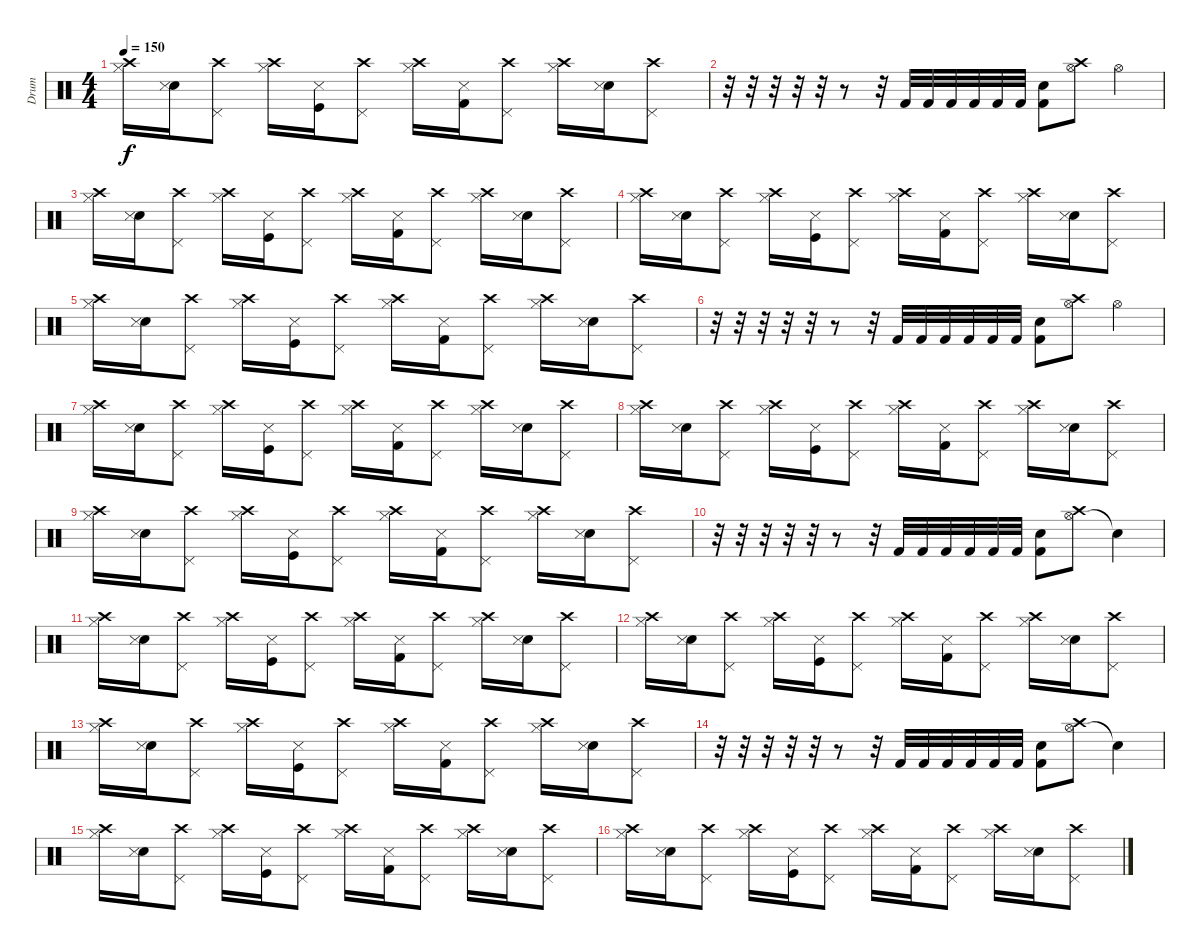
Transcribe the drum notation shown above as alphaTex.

\track ("Drum" "Drum") {instrument percussion}
\staff {score}
\articulation defaults
\ts (4 4)
\tempo 150
\clef neutral
\ks c
("Crash high (hit)" "Hi-Hat (closed)").16{dy f} ("Snare (hit) 2" "Snare (side stick) 3").16 ("Crash high (hit)" "Pedal Hi-Hat (hit)").8 ("Crash high (hit)" "Hi-Hat (closed)").16 ("Kick (hit)" "Snare (side stick) 3").16 ("Crash high (hit)" "Pedal Hi-Hat (hit)").8 ("Crash high (hit)" "Hi-Hat (closed)").16 ("Kick (hit) 2" "Snare (side stick) 3").16 ("Crash high (hit)" "Pedal Hi-Hat (hit)").8 ("Crash high (hit)" "Hi-Hat (closed)").16 ("Snare (hit) 2" "Snare (side stick) 3").16 ("Crash high (hit)" "Pedal Hi-Hat (hit)").8 |
r.32 r.32 r.32 r.32 r.32 r.8 r.32 "Kick (hit) 2".32 "Kick (hit) 2".32 "Kick (hit) 2".32 "Kick (hit) 2".32 "Kick (hit) 2".32 "Kick (hit) 2".32 ("Snare (hit) 2" "Kick (hit) 2").8 ("Hi-Hat (open)" "Crash high (hit)").8 "Hi-Hat (open)".4 |
("Crash high (hit)" "Hi-Hat (closed)").16 ("Snare (hit) 2" "Snare (side stick) 3").16 ("Crash high (hit)" "Pedal Hi-Hat (hit)").8 ("Crash high (hit)" "Hi-Hat (closed)").16 ("Kick (hit)" "Snare (side stick) 3").16 ("Crash high (hit)" "Pedal Hi-Hat (hit)").8 ("Crash high (hit)" "Hi-Hat (closed)").16 ("Kick (hit) 2" "Snare (side stick) 3").16 ("Crash high (hit)" "Pedal Hi-Hat (hit)").8 ("Crash high (hit)" "Hi-Hat (closed)").16 ("Snare (hit) 2" "Snare (side stick) 3").16 ("Crash high (hit)" "Pedal Hi-Hat (hit)").8 |
("Crash high (hit)" "Hi-Hat (closed)").16 ("Snare (hit) 2" "Snare (side stick) 3").16 ("Crash high (hit)" "Pedal Hi-Hat (hit)").8 ("Crash high (hit)" "Hi-Hat (closed)").16 ("Kick (hit)" "Snare (side stick) 3").16 ("Crash high (hit)" "Pedal Hi-Hat (hit)").8 ("Crash high (hit)" "Hi-Hat (closed)").16 ("Kick (hit) 2" "Snare (side stick) 3").16 ("Crash high (hit)" "Pedal Hi-Hat (hit)").8 ("Crash high (hit)" "Hi-Hat (closed)").16 ("Snare (hit) 2" "Snare (side stick) 3").16 ("Crash high (hit)" "Pedal Hi-Hat (hit)").8 |
("Crash high (hit)" "Hi-Hat (closed)").16 ("Snare (hit) 2" "Snare (side stick) 3").16 ("Crash high (hit)" "Pedal Hi-Hat (hit)").8 ("Crash high (hit)" "Hi-Hat (closed)").16 ("Kick (hit)" "Snare (side stick) 3").16 ("Crash high (hit)" "Pedal Hi-Hat (hit)").8 ("Crash high (hit)" "Hi-Hat (closed)").16 ("Kick (hit) 2" "Snare (side stick) 3").16 ("Crash high (hit)" "Pedal Hi-Hat (hit)").8 ("Crash high (hit)" "Hi-Hat (closed)").16 ("Snare (hit) 2" "Snare (side stick) 3").16 ("Crash high (hit)" "Pedal Hi-Hat (hit)").8 |
r.32 r.32 r.32 r.32 r.32 r.8 r.32 "Kick (hit) 2".32 "Kick (hit) 2".32 "Kick (hit) 2".32 "Kick (hit) 2".32 "Kick (hit) 2".32 "Kick (hit) 2".32 ("Snare (hit) 2" "Kick (hit) 2").8 ("Hi-Hat (open)" "Crash high (hit)").8 "Hi-Hat (open)".4 |
("Crash high (hit)" "Hi-Hat (closed)").16 ("Snare (hit) 2" "Snare (side stick) 3").16 ("Crash high (hit)" "Pedal Hi-Hat (hit)").8 ("Crash high (hit)" "Hi-Hat (closed)").16 ("Kick (hit)" "Snare (side stick) 3").16 ("Crash high (hit)" "Pedal Hi-Hat (hit)").8 ("Crash high (hit)" "Hi-Hat (closed)").16 ("Kick (hit) 2" "Snare (side stick) 3").16 ("Crash high (hit)" "Pedal Hi-Hat (hit)").8 ("Crash high (hit)" "Hi-Hat (closed)").16 ("Snare (hit) 2" "Snare (side stick) 3").16 ("Crash high (hit)" "Pedal Hi-Hat (hit)").8 |
("Crash high (hit)" "Hi-Hat (closed)").16 ("Snare (hit) 2" "Snare (side stick) 3").16 ("Crash high (hit)" "Pedal Hi-Hat (hit)").8 ("Crash high (hit)" "Hi-Hat (closed)").16 ("Kick (hit)" "Snare (side stick) 3").16 ("Crash high (hit)" "Pedal Hi-Hat (hit)").8 ("Crash high (hit)" "Hi-Hat (closed)").16 ("Kick (hit) 2" "Snare (side stick) 3").16 ("Crash high (hit)" "Pedal Hi-Hat (hit)").8 ("Crash high (hit)" "Hi-Hat (closed)").16 ("Snare (hit) 2" "Snare (side stick) 3").16 ("Crash high (hit)" "Pedal Hi-Hat (hit)").8 |
("Crash high (hit)" "Hi-Hat (closed)").16 ("Snare (hit) 2" "Snare (side stick) 3").16 ("Crash high (hit)" "Pedal Hi-Hat (hit)").8 ("Crash high (hit)" "Hi-Hat (closed)").16 ("Kick (hit)" "Snare (side stick) 3").16 ("Crash high (hit)" "Pedal Hi-Hat (hit)").8 ("Crash high (hit)" "Hi-Hat (closed)").16 ("Kick (hit) 2" "Snare (side stick) 3").16 ("Crash high (hit)" "Pedal Hi-Hat (hit)").8 ("Crash high (hit)" "Hi-Hat (closed)").16 ("Snare (hit) 2" "Snare (side stick) 3").16 ("Crash high (hit)" "Pedal Hi-Hat (hit)").8 |
r.32 r.32 r.32 r.32 r.32 r.8 r.32 "Kick (hit) 2".32 "Kick (hit) 2".32 "Kick (hit) 2".32 "Kick (hit) 2".32 "Kick (hit) 2".32 "Kick (hit) 2".32 ("Snare (hit) 2" "Kick (hit) 2").8 ("Hi-Hat (open)" "Crash high (hit)").8 "Snare (hit)"{t}.4 |
("Crash high (hit)" "Hi-Hat (closed)").16 ("Snare (hit) 2" "Snare (side stick) 3").16 ("Crash high (hit)" "Pedal Hi-Hat (hit)").8 ("Crash high (hit)" "Hi-Hat (closed)").16 ("Kick (hit)" "Snare (side stick) 3").16 ("Crash high (hit)" "Pedal Hi-Hat (hit)").8 ("Crash high (hit)" "Hi-Hat (closed)").16 ("Kick (hit) 2" "Snare (side stick) 3").16 ("Crash high (hit)" "Pedal Hi-Hat (hit)").8 ("Crash high (hit)" "Hi-Hat (closed)").16 ("Snare (hit) 2" "Snare (side stick) 3").16 ("Crash high (hit)" "Pedal Hi-Hat (hit)").8 |
("Crash high (hit)" "Hi-Hat (closed)").16 ("Snare (hit) 2" "Snare (side stick) 3").16 ("Crash high (hit)" "Pedal Hi-Hat (hit)").8 ("Crash high (hit)" "Hi-Hat (closed)").16 ("Kick (hit)" "Snare (side stick) 3").16 ("Crash high (hit)" "Pedal Hi-Hat (hit)").8 ("Crash high (hit)" "Hi-Hat (closed)").16 ("Kick (hit) 2" "Snare (side stick) 3").16 ("Crash high (hit)" "Pedal Hi-Hat (hit)").8 ("Crash high (hit)" "Hi-Hat (closed)").16 ("Snare (hit) 2" "Snare (side stick) 3").16 ("Crash high (hit)" "Pedal Hi-Hat (hit)").8 |
("Crash high (hit)" "Hi-Hat (closed)").16 ("Snare (hit) 2" "Snare (side stick) 3").16 ("Crash high (hit)" "Pedal Hi-Hat (hit)").8 ("Crash high (hit)" "Hi-Hat (closed)").16 ("Kick (hit)" "Snare (side stick) 3").16 ("Crash high (hit)" "Pedal Hi-Hat (hit)").8 ("Crash high (hit)" "Hi-Hat (closed)").16 ("Kick (hit) 2" "Snare (side stick) 3").16 ("Crash high (hit)" "Pedal Hi-Hat (hit)").8 ("Crash high (hit)" "Hi-Hat (closed)").16 ("Snare (hit) 2" "Snare (side stick) 3").16 ("Crash high (hit)" "Pedal Hi-Hat (hit)").8 |
r.32 r.32 r.32 r.32 r.32 r.8 r.32 "Kick (hit) 2".32 "Kick (hit) 2".32 "Kick (hit) 2".32 "Kick (hit) 2".32 "Kick (hit) 2".32 "Kick (hit) 2".32 ("Snare (hit) 2" "Kick (hit) 2").8 ("Hi-Hat (open)" "Crash high (hit)").8 "Snare (hit)"{t}.4 |
("Crash high (hit)" "Hi-Hat (closed)").16 ("Snare (hit) 2" "Snare (side stick) 3").16 ("Crash high (hit)" "Pedal Hi-Hat (hit)").8 ("Crash high (hit)" "Hi-Hat (closed)").16 ("Kick (hit)" "Snare (side stick) 3").16 ("Crash high (hit)" "Pedal Hi-Hat (hit)").8 ("Crash high (hit)" "Hi-Hat (closed)").16 ("Kick (hit) 2" "Snare (side stick) 3").16 ("Crash high (hit)" "Pedal Hi-Hat (hit)").8 ("Crash high (hit)" "Hi-Hat (closed)").16 ("Snare (hit) 2" "Snare (side stick) 3").16 ("Crash high (hit)" "Pedal Hi-Hat (hit)").8 |
("Crash high (hit)" "Hi-Hat (closed)").16 ("Snare (hit) 2" "Snare (side stick) 3").16 ("Crash high (hit)" "Pedal Hi-Hat (hit)").8 ("Crash high (hit)" "Hi-Hat (closed)").16 ("Kick (hit)" "Snare (side stick) 3").16 ("Crash high (hit)" "Pedal Hi-Hat (hit)").8 ("Crash high (hit)" "Hi-Hat (closed)").16 ("Kick (hit) 2" "Snare (side stick) 3").16 ("Crash high (hit)" "Pedal Hi-Hat (hit)").8 ("Crash high (hit)" "Hi-Hat (closed)").16 ("Snare (hit) 2" "Snare (side stick) 3").16 ("Crash high (hit)" "Pedal Hi-Hat (hit)").8
